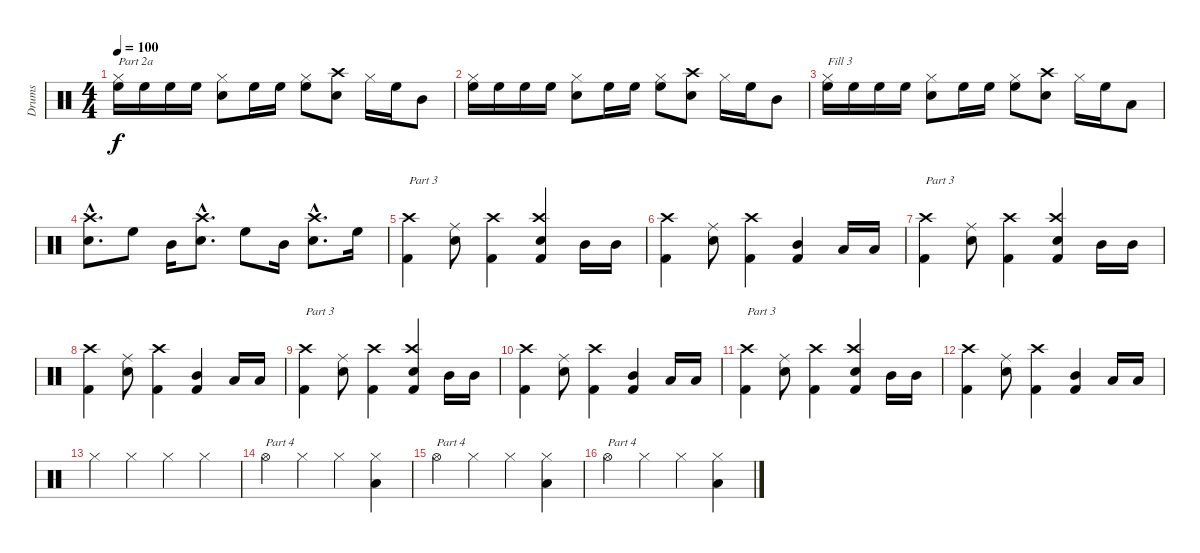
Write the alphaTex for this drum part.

\track ("Drums" "Drums") {instrument percussion}
\staff {score}
\articulation defaults
\ts (4 4)
\tempo 100
\clef neutral
\ks c
("High Floor Tom (hit)" "Hi-Hat (closed)").16{txt "Part 2a" dy f} "High Floor Tom (hit)".16 "High Floor Tom (hit)".16 "High Floor Tom (hit)".16 ("Snare (hit) 2" "Hi-Hat (closed)").8 "High Floor Tom (hit)".16 "High Floor Tom (hit)".16 ("High Floor Tom (hit)" "Hi-Hat (closed)").8 ("Crash high (hit)" "Snare (hit) 2").8 "Hi-Hat (closed)".16 "High Floor Tom (hit)".16 "Mid Tom (hit)".8 |
("High Floor Tom (hit)" "Hi-Hat (closed)").16 "High Floor Tom (hit)".16 "High Floor Tom (hit)".16 "High Floor Tom (hit)".16 ("Snare (hit) 2" "Hi-Hat (closed)").8 "High Floor Tom (hit)".16 "High Floor Tom (hit)".16 ("High Floor Tom (hit)" "Hi-Hat (closed)").8 ("Crash high (hit)" "Snare (hit) 2").8 "Hi-Hat (closed)".16 "High Floor Tom (hit)".16 "Mid Tom (hit)".8 |
("High Floor Tom (hit)" "Hi-Hat (closed)").16{txt "Fill 3"} "High Floor Tom (hit)".16 "High Floor Tom (hit)".16 "High Floor Tom (hit)".16 ("Snare (hit) 2" "Hi-Hat (closed)").8 "High Floor Tom (hit)".16 "High Floor Tom (hit)".16 ("High Floor Tom (hit)" "Hi-Hat (closed)").8 ("Crash high (hit)" "Snare (hit) 2").8 "Hi-Hat (closed)".16 "High Floor Tom (hit)".16 "Low Floor Tom (hit)".8 |
("Crash high (hit)"{hac} "Snare (hit) 2"{hac}).8{d} "High Floor Tom (hit)".8 "Mid Tom (hit)".16 ("Crash high (hit)"{hac} "Snare (hit) 2"{hac}).8{d} "High Floor Tom (hit)".8 "Mid Tom (hit)".16 ("Crash high (hit)"{hac} "Snare (hit) 2"{hac}).8{d} "High Floor Tom (hit)".16 |
("Crash high (hit)" "Kick (hit) 2").4{txt "Part 3"} ("Snare (hit) 2" "Ride (middle)").8 ("Crash high (hit)" "Kick (hit) 2").4 ("Crash high (hit)" "Snare (hit) 2" "Kick (hit) 2").4 "Mid Tom (hit)".16 "Mid Tom (hit)".16 |
("Crash high (hit)" "Kick (hit) 2").4 ("Snare (hit) 2" "Ride (middle)").8 ("Crash high (hit)" "Kick (hit) 2").4 ("Mid Tom (hit)" "Kick (hit) 2").4 "Low Floor Tom (hit)".16 "Low Floor Tom (hit)".16 |
("Crash high (hit)" "Kick (hit) 2").4{txt "Part 3"} ("Snare (hit) 2" "Ride (middle)").8 ("Crash high (hit)" "Kick (hit) 2").4 ("Crash high (hit)" "Snare (hit) 2" "Kick (hit) 2").4 "Mid Tom (hit)".16 "Mid Tom (hit)".16 |
("Crash high (hit)" "Kick (hit) 2").4 ("Snare (hit) 2" "Ride (middle)").8 ("Crash high (hit)" "Kick (hit) 2").4 ("Mid Tom (hit)" "Kick (hit) 2").4 "Low Floor Tom (hit)".16 "Low Floor Tom (hit)".16 |
("Crash high (hit)" "Kick (hit) 2").4{txt "Part 3"} ("Snare (hit) 2" "Ride (middle)").8 ("Crash high (hit)" "Kick (hit) 2").4 ("Crash high (hit)" "Snare (hit) 2" "Kick (hit) 2").4 "Mid Tom (hit)".16 "Mid Tom (hit)".16 |
("Crash high (hit)" "Kick (hit) 2").4 ("Snare (hit) 2" "Ride (middle)").8 ("Crash high (hit)" "Kick (hit) 2").4 ("Mid Tom (hit)" "Kick (hit) 2").4 "Low Floor Tom (hit)".16 "Low Floor Tom (hit)".16 |
("Crash high (hit)" "Kick (hit) 2").4{txt "Part 3"} ("Snare (hit) 2" "Ride (middle)").8 ("Crash high (hit)" "Kick (hit) 2").4 ("Crash high (hit)" "Snare (hit) 2" "Kick (hit) 2").4 "Mid Tom (hit)".16 "Mid Tom (hit)".16 |
("Crash high (hit)" "Kick (hit) 2").4 ("Snare (hit) 2" "Ride (middle)").8 ("Crash high (hit)" "Kick (hit) 2").4 ("Mid Tom (hit)" "Kick (hit) 2").4 "Low Floor Tom (hit)".16 "Low Floor Tom (hit)".16 |
"Hi-Hat (closed)".4 "Hi-Hat (closed)".4 "Hi-Hat (closed)".4 "Hi-Hat (closed)".4 |
"Hi-Hat (open)".4{txt "Part 4"} "Hi-Hat (closed)".4 "Hi-Hat (closed)".4 ("Hi-Hat (closed)" "Low Floor Tom (hit)").4 |
"Hi-Hat (open)".4{txt "Part 4"} "Hi-Hat (closed)".4 "Hi-Hat (closed)".4 ("Hi-Hat (closed)" "Low Floor Tom (hit)").4 |
"Hi-Hat (open)".4{txt "Part 4"} "Hi-Hat (closed)".4 "Hi-Hat (closed)".4 ("Hi-Hat (closed)" "Low Floor Tom (hit)").4
